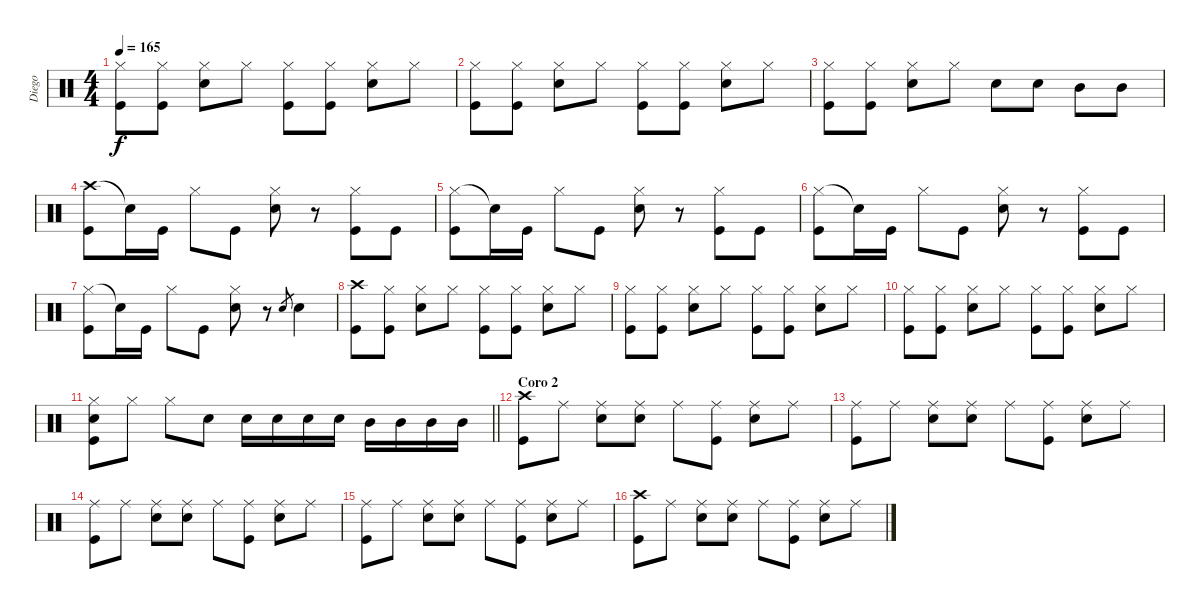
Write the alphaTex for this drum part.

\track ("Diego" "Diego") {instrument percussion}
\staff {score}
\articulation defaults
\ts (4 4)
\tempo 165
\clef neutral
\ks c
("Hi-Hat (closed)" "Kick (hit)").8{dy f} ("Hi-Hat (closed)" "Kick (hit)").8 ("Hi-Hat (closed)" "Snare (hit) 2").8 "Hi-Hat (closed)".8 ("Hi-Hat (closed)" "Kick (hit)").8 ("Hi-Hat (closed)" "Kick (hit)").8 ("Hi-Hat (closed)" "Snare (hit) 2").8 "Hi-Hat (closed)".8 |
("Hi-Hat (closed)" "Kick (hit)").8 ("Hi-Hat (closed)" "Kick (hit)").8 ("Hi-Hat (closed)" "Snare (hit) 2").8 "Hi-Hat (closed)".8 ("Hi-Hat (closed)" "Kick (hit)").8 ("Hi-Hat (closed)" "Kick (hit)").8 ("Hi-Hat (closed)" "Snare (hit) 2").8 "Hi-Hat (closed)".8 |
("Hi-Hat (closed)" "Kick (hit)").8 ("Hi-Hat (closed)" "Kick (hit)").8 ("Hi-Hat (closed)" "Snare (hit) 2").8 "Hi-Hat (closed)".8 "Snare (hit) 2".8 "Snare (hit) 2".8 "Mid Tom (hit)".8 "Mid Tom (hit)".8 |
("Crash high (hit)" "Kick (hit)").8 "Snare (hit)"{t}.16 "Kick (hit)".16 "Hi-Hat (closed)".8 "Kick (hit)".8 ("Hi-Hat (closed)" "Snare (hit) 2").8 r.8 ("Hi-Hat (closed)" "Kick (hit)").8 "Kick (hit)".8 |
("Hi-Hat (closed)" "Kick (hit)").8 "Snare (hit)"{t}.16 "Kick (hit)".16 "Hi-Hat (closed)".8 "Kick (hit)".8 ("Hi-Hat (closed)" "Snare (hit) 2").8 r.8 ("Hi-Hat (closed)" "Kick (hit)").8 "Kick (hit)".8 |
("Hi-Hat (closed)" "Kick (hit)").8 "Snare (hit)"{t}.16 "Kick (hit)".16 "Hi-Hat (closed)".8 "Kick (hit)".8 ("Hi-Hat (closed)" "Snare (hit) 2").8 r.8 ("Hi-Hat (closed)" "Kick (hit)").8 "Kick (hit)".8 |
("Hi-Hat (closed)" "Kick (hit)").8 "Snare (hit)"{t}.16 "Kick (hit)".16 "Hi-Hat (closed)".8 "Kick (hit)".8 ("Hi-Hat (closed)" "Snare (hit) 2").8 r.8 "Snare (hit) 2".8{gr} "Snare (hit) 2".4 |
("Crash high (hit)" "Kick (hit)").8 ("Hi-Hat (closed)" "Kick (hit)").8 ("Hi-Hat (closed)" "Snare (hit) 2").8 "Hi-Hat (closed)".8 ("Hi-Hat (closed)" "Kick (hit)").8 ("Hi-Hat (closed)" "Kick (hit)").8 ("Hi-Hat (closed)" "Snare (hit) 2").8 "Hi-Hat (closed)".8 |
("Hi-Hat (closed)" "Kick (hit)").8 ("Hi-Hat (closed)" "Kick (hit)").8 ("Hi-Hat (closed)" "Snare (hit) 2").8 "Hi-Hat (closed)".8 ("Hi-Hat (closed)" "Kick (hit)").8 ("Hi-Hat (closed)" "Kick (hit)").8 ("Hi-Hat (closed)" "Snare (hit) 2").8 "Hi-Hat (closed)".8 |
("Hi-Hat (closed)" "Kick (hit)").8 ("Hi-Hat (closed)" "Kick (hit)").8 ("Hi-Hat (closed)" "Snare (hit) 2").8 "Hi-Hat (closed)".8 ("Hi-Hat (closed)" "Kick (hit)").8 ("Hi-Hat (closed)" "Kick (hit)").8 ("Hi-Hat (closed)" "Snare (hit) 2").8 "Hi-Hat (closed)".8 |
\barLineRight lightlight
("Hi-Hat (closed)" "Snare (hit) 2" "Kick (hit)").8 "Hi-Hat (closed)".8 "Hi-Hat (closed)".8 "Snare (hit) 2".8 "Snare (hit) 2".16 "Snare (hit) 2".16 "Snare (hit) 2".16 "Snare (hit) 2".16 "Mid Tom (hit)".16 "Mid Tom (hit)".16 "Mid Tom (hit)".16 "Mid Tom (hit)".16 |
\section ("" "Coro 2")
("Crash high (hit)" "Kick (hit)").8 "Ride (middle)".8 ("Ride (middle)" "Snare (hit) 2").8 ("Ride (middle)" "Snare (hit) 2").8 "Ride (middle)".8 ("Ride (middle)" "Kick (hit)").8 ("Ride (middle)" "Snare (hit) 2").8 "Ride (middle)".8 |
("Ride (middle)" "Kick (hit)").8 "Ride (middle)".8 ("Ride (middle)" "Snare (hit) 2").8 ("Ride (middle)" "Snare (hit) 2").8 "Ride (middle)".8 ("Ride (middle)" "Kick (hit)").8 ("Ride (middle)" "Snare (hit) 2").8 "Ride (middle)".8 |
("Ride (middle)" "Kick (hit)").8 "Ride (middle)".8 ("Ride (middle)" "Snare (hit) 2").8 ("Ride (middle)" "Snare (hit) 2").8 "Ride (middle)".8 ("Ride (middle)" "Kick (hit)").8 ("Ride (middle)" "Snare (hit) 2").8 "Ride (middle)".8 |
("Ride (middle)" "Kick (hit)").8 "Ride (middle)".8 ("Ride (middle)" "Snare (hit) 2").8 ("Ride (middle)" "Snare (hit) 2").8 "Ride (middle)".8 ("Ride (middle)" "Kick (hit)").8 ("Ride (middle)" "Snare (hit) 2").8 "Ride (middle)".8 |
("Crash high (hit)" "Kick (hit)").8 "Ride (middle)".8 ("Ride (middle)" "Snare (hit) 2").8 ("Ride (middle)" "Snare (hit) 2").8 "Ride (middle)".8 ("Ride (middle)" "Kick (hit)").8 ("Ride (middle)" "Snare (hit) 2").8 "Ride (middle)".8
